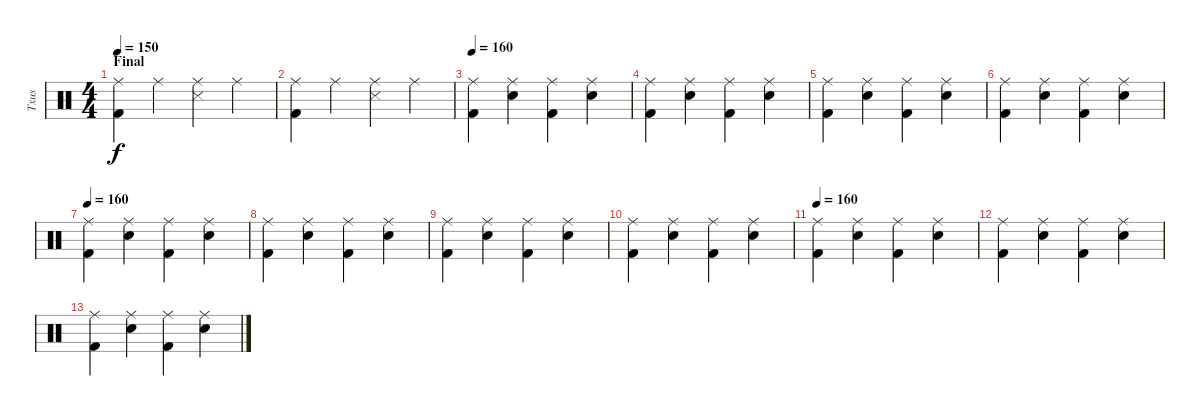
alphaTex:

\track ("Txus" "Txus") {instrument percussion}
\staff {score}
\articulation defaults
\ts (4 4)
\section ("" "Final")
\tempo 150
\clef neutral
\ks c
("Kick (hit) 2" "Ride (middle)").4{dy f} "Ride (middle)".4 ("Snare (side stick) 3" "Ride (middle)").4 "Ride (middle)".4 |
("Kick (hit) 2" "Ride (middle)").4 "Ride (middle)".4 ("Snare (side stick) 3" "Ride (middle)").4 "Ride (middle)".4 |
\tempo 160
("Kick (hit) 2" "Ride (middle)").4 ("Snare (hit) 2" "Ride (middle)").4 ("Kick (hit) 2" "Ride (middle)").4 ("Snare (hit) 2" "Ride (middle)").4 |
("Kick (hit) 2" "Ride (middle)").4 ("Snare (hit) 2" "Ride (middle)").4 ("Kick (hit) 2" "Ride (middle)").4 ("Snare (hit) 2" "Ride (middle)").4 |
("Kick (hit) 2" "Ride (middle)").4 ("Snare (hit) 2" "Ride (middle)").4 ("Kick (hit) 2" "Ride (middle)").4 ("Snare (hit) 2" "Ride (middle)").4 |
("Kick (hit) 2" "Ride (middle)").4 ("Snare (hit) 2" "Ride (middle)").4 ("Kick (hit) 2" "Ride (middle)").4 ("Snare (hit) 2" "Ride (middle)").4 |
\tempo 160
("Kick (hit) 2" "Ride (middle)").4 ("Snare (hit) 2" "Ride (middle)").4 ("Kick (hit) 2" "Ride (middle)").4 ("Snare (hit) 2" "Ride (middle)").4 |
("Kick (hit) 2" "Ride (middle)").4 ("Snare (hit) 2" "Ride (middle)").4 ("Kick (hit) 2" "Ride (middle)").4 ("Snare (hit) 2" "Ride (middle)").4 |
("Kick (hit) 2" "Ride (middle)").4 ("Snare (hit) 2" "Ride (middle)").4 ("Kick (hit) 2" "Ride (middle)").4 ("Snare (hit) 2" "Ride (middle)").4 |
("Kick (hit) 2" "Ride (middle)").4 ("Snare (hit) 2" "Ride (middle)").4 ("Kick (hit) 2" "Ride (middle)").4 ("Snare (hit) 2" "Ride (middle)").4 |
\tempo 160
("Kick (hit) 2" "Ride (middle)").4 ("Snare (hit) 2" "Ride (middle)").4 ("Kick (hit) 2" "Ride (middle)").4 ("Snare (hit) 2" "Ride (middle)").4 |
("Kick (hit) 2" "Ride (middle)").4 ("Snare (hit) 2" "Ride (middle)").4 ("Kick (hit) 2" "Ride (middle)").4 ("Snare (hit) 2" "Ride (middle)").4 |
("Kick (hit) 2" "Ride (middle)").4 ("Snare (hit) 2" "Ride (middle)").4 ("Kick (hit) 2" "Ride (middle)").4 ("Snare (hit) 2" "Ride (middle)").4
